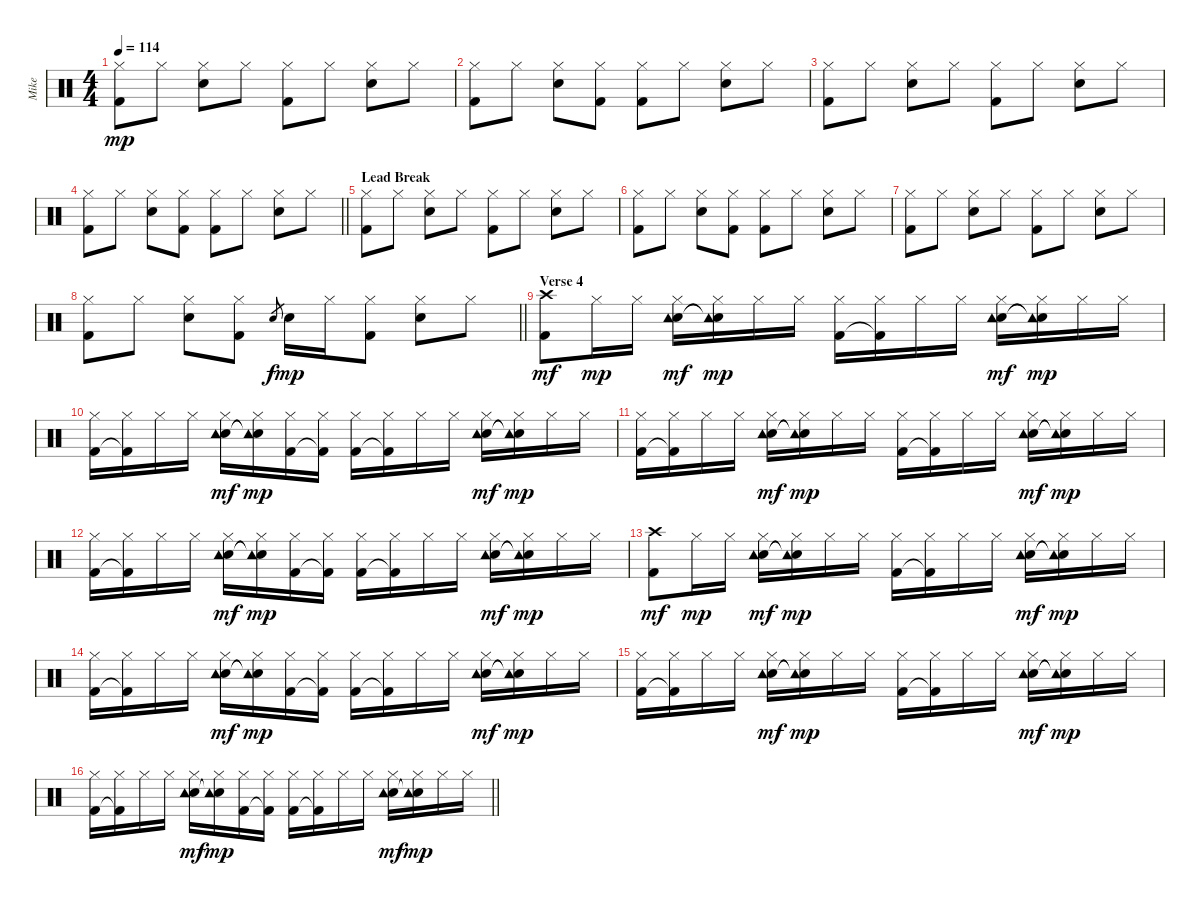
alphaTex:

\track ("Mike" "Mike") {instrument percussion}
\staff {score}
\articulation defaults
\ts (4 4)
\tempo 114
\clef neutral
\ks c
("Hi-Hat (closed)" "Kick (hit) 2").8{dy mp} "Hi-Hat (closed)".8 ("Hi-Hat (closed)" "Electric Snare (hit)").8 "Hi-Hat (closed)".8 ("Hi-Hat (closed)" "Kick (hit) 2").8 "Hi-Hat (closed)".8 ("Hi-Hat (closed)" "Electric Snare (hit)").8 "Hi-Hat (closed)".8 |
("Hi-Hat (closed)" "Kick (hit) 2").8 "Hi-Hat (closed)".8 ("Hi-Hat (closed)" "Electric Snare (hit)").8 ("Hi-Hat (closed)" "Kick (hit) 2").8 ("Hi-Hat (closed)" "Kick (hit) 2").8 "Hi-Hat (closed)".8 ("Hi-Hat (closed)" "Electric Snare (hit)").8 "Hi-Hat (closed)".8 |
("Hi-Hat (closed)" "Kick (hit) 2").8 "Hi-Hat (closed)".8 ("Hi-Hat (closed)" "Electric Snare (hit)").8 "Hi-Hat (closed)".8 ("Hi-Hat (closed)" "Kick (hit) 2").8 "Hi-Hat (closed)".8 ("Hi-Hat (closed)" "Electric Snare (hit)").8 "Hi-Hat (closed)".8 |
\barLineRight lightlight
("Hi-Hat (closed)" "Kick (hit) 2").8 "Hi-Hat (closed)".8 ("Hi-Hat (closed)" "Electric Snare (hit)").8 ("Hi-Hat (closed)" "Kick (hit) 2").8 ("Hi-Hat (closed)" "Kick (hit) 2").8 "Hi-Hat (closed)".8 ("Hi-Hat (closed)" "Electric Snare (hit)").8 "Hi-Hat (closed)".8 |
\section ("" "Lead Break")
("Hi-Hat (closed)" "Kick (hit) 2").8 "Hi-Hat (closed)".8 ("Hi-Hat (closed)" "Electric Snare (hit)").8 "Hi-Hat (closed)".8 ("Hi-Hat (closed)" "Kick (hit) 2").8 "Hi-Hat (closed)".8 ("Hi-Hat (closed)" "Electric Snare (hit)").8 "Hi-Hat (closed)".8 |
("Hi-Hat (closed)" "Kick (hit) 2").8 "Hi-Hat (closed)".8 ("Hi-Hat (closed)" "Electric Snare (hit)").8 ("Hi-Hat (closed)" "Kick (hit) 2").8 ("Hi-Hat (closed)" "Kick (hit) 2").8 "Hi-Hat (closed)".8 ("Hi-Hat (closed)" "Electric Snare (hit)").8 "Hi-Hat (closed)".8 |
("Hi-Hat (closed)" "Kick (hit) 2").8 "Hi-Hat (closed)".8 ("Hi-Hat (closed)" "Electric Snare (hit)").8 "Hi-Hat (closed)".8 ("Hi-Hat (closed)" "Kick (hit) 2").8 "Hi-Hat (closed)".8 ("Hi-Hat (closed)" "Electric Snare (hit)").8 "Hi-Hat (closed)".8 |
\barLineRight lightlight
("Hi-Hat (closed)" "Kick (hit) 2").8 "Hi-Hat (closed)".8 ("Hi-Hat (closed)" "Electric Snare (hit)").8 ("Hi-Hat (closed)" "Kick (hit) 2").8 "Electric Snare (hit)".8{gr dy f} "Electric Snare (hit)".16{dy mp} "Hi-Hat (closed)".16 ("Hi-Hat (closed)" "Kick (hit) 2").8 ("Hi-Hat (closed)" "Electric Snare (hit)").8 "Hi-Hat (closed)".8 |
\section ("" "Verse 4")
("Crash high (hit)" "Kick (hit) 2").8{dy mf} "Hi-Hat (closed)".16{dy mp} "Hi-Hat (closed)".16 ("Hi-Hat (closed)" "Electric Snare (hit)" "Tambourine (hit)").16{dy mf} ("Hi-Hat (closed)" "Electric Snare (hit)"{t} "Tambourine (hit)"{t}).16{dy mp} "Hi-Hat (closed)".16 "Hi-Hat (closed)".16 ("Hi-Hat (closed)" "Kick (hit) 2").16 ("Hi-Hat (closed)" "Kick (hit) 2"{t}).16 "Hi-Hat (closed)".16 "Hi-Hat (closed)".16 ("Hi-Hat (closed)" "Electric Snare (hit)" "Tambourine (hit)").16{dy mf} ("Hi-Hat (closed)" "Electric Snare (hit)"{t} "Tambourine (hit)"{t}).16{dy mp} "Hi-Hat (closed)".16 "Hi-Hat (closed)".16 |
("Hi-Hat (closed)" "Kick (hit) 2").16 ("Hi-Hat (closed)" "Kick (hit) 2"{t}).16 "Hi-Hat (closed)".16 "Hi-Hat (closed)".16 ("Hi-Hat (closed)" "Electric Snare (hit)" "Tambourine (hit)").16{dy mf} ("Hi-Hat (closed)" "Electric Snare (hit)"{t} "Tambourine (hit)"{t}).16{dy mp} ("Hi-Hat (closed)" "Kick (hit) 2").16 ("Hi-Hat (closed)" "Kick (hit) 2"{t}).16 ("Hi-Hat (closed)" "Kick (hit) 2").16 ("Hi-Hat (closed)" "Kick (hit) 2"{t}).16 "Hi-Hat (closed)".16 "Hi-Hat (closed)".16 ("Hi-Hat (closed)" "Electric Snare (hit)" "Tambourine (hit)").16{dy mf} ("Hi-Hat (closed)" "Electric Snare (hit)"{t} "Tambourine (hit)"{t}).16{dy mp} "Hi-Hat (closed)".16 "Hi-Hat (closed)".16 |
("Hi-Hat (closed)" "Kick (hit) 2").16 ("Hi-Hat (closed)" "Kick (hit) 2"{t}).16 "Hi-Hat (closed)".16 "Hi-Hat (closed)".16 ("Hi-Hat (closed)" "Electric Snare (hit)" "Tambourine (hit)").16{dy mf} ("Hi-Hat (closed)" "Electric Snare (hit)"{t} "Tambourine (hit)"{t}).16{dy mp} "Hi-Hat (closed)".16 "Hi-Hat (closed)".16 ("Hi-Hat (closed)" "Kick (hit) 2").16 ("Hi-Hat (closed)" "Kick (hit) 2"{t}).16 "Hi-Hat (closed)".16 "Hi-Hat (closed)".16 ("Hi-Hat (closed)" "Electric Snare (hit)" "Tambourine (hit)").16{dy mf} ("Hi-Hat (closed)" "Electric Snare (hit)"{t} "Tambourine (hit)"{t}).16{dy mp} "Hi-Hat (closed)".16 "Hi-Hat (closed)".16 |
("Hi-Hat (closed)" "Kick (hit) 2").16 ("Hi-Hat (closed)" "Kick (hit) 2"{t}).16 "Hi-Hat (closed)".16 "Hi-Hat (closed)".16 ("Hi-Hat (closed)" "Electric Snare (hit)" "Tambourine (hit)").16{dy mf} ("Hi-Hat (closed)" "Electric Snare (hit)"{t} "Tambourine (hit)"{t}).16{dy mp} ("Hi-Hat (closed)" "Kick (hit) 2").16 ("Hi-Hat (closed)" "Kick (hit) 2"{t}).16 ("Hi-Hat (closed)" "Kick (hit) 2").16 ("Hi-Hat (closed)" "Kick (hit) 2"{t}).16 "Hi-Hat (closed)".16 "Hi-Hat (closed)".16 ("Hi-Hat (closed)" "Electric Snare (hit)" "Tambourine (hit)").16{dy mf} ("Hi-Hat (closed)" "Electric Snare (hit)"{t} "Tambourine (hit)"{t}).16{dy mp} "Hi-Hat (closed)".16 "Hi-Hat (closed)".16 |
("Crash high (hit)" "Kick (hit) 2").8{dy mf} "Hi-Hat (closed)".16{dy mp} "Hi-Hat (closed)".16 ("Hi-Hat (closed)" "Electric Snare (hit)" "Tambourine (hit)").16{dy mf} ("Hi-Hat (closed)" "Electric Snare (hit)"{t} "Tambourine (hit)"{t}).16{dy mp} "Hi-Hat (closed)".16 "Hi-Hat (closed)".16 ("Hi-Hat (closed)" "Kick (hit) 2").16 ("Hi-Hat (closed)" "Kick (hit) 2"{t}).16 "Hi-Hat (closed)".16 "Hi-Hat (closed)".16 ("Hi-Hat (closed)" "Electric Snare (hit)" "Tambourine (hit)").16{dy mf} ("Hi-Hat (closed)" "Electric Snare (hit)"{t} "Tambourine (hit)"{t}).16{dy mp} "Hi-Hat (closed)".16 "Hi-Hat (closed)".16 |
("Hi-Hat (closed)" "Kick (hit) 2").16 ("Hi-Hat (closed)" "Kick (hit) 2"{t}).16 "Hi-Hat (closed)".16 "Hi-Hat (closed)".16 ("Hi-Hat (closed)" "Electric Snare (hit)" "Tambourine (hit)").16{dy mf} ("Hi-Hat (closed)" "Electric Snare (hit)"{t} "Tambourine (hit)"{t}).16{dy mp} ("Hi-Hat (closed)" "Kick (hit) 2").16 ("Hi-Hat (closed)" "Kick (hit) 2"{t}).16 ("Hi-Hat (closed)" "Kick (hit) 2").16 ("Hi-Hat (closed)" "Kick (hit) 2"{t}).16 "Hi-Hat (closed)".16 "Hi-Hat (closed)".16 ("Hi-Hat (closed)" "Electric Snare (hit)" "Tambourine (hit)").16{dy mf} ("Hi-Hat (closed)" "Electric Snare (hit)"{t} "Tambourine (hit)"{t}).16{dy mp} "Hi-Hat (closed)".16 "Hi-Hat (closed)".16 |
("Hi-Hat (closed)" "Kick (hit) 2").16 ("Hi-Hat (closed)" "Kick (hit) 2"{t}).16 "Hi-Hat (closed)".16 "Hi-Hat (closed)".16 ("Hi-Hat (closed)" "Electric Snare (hit)" "Tambourine (hit)").16{dy mf} ("Hi-Hat (closed)" "Electric Snare (hit)"{t} "Tambourine (hit)"{t}).16{dy mp} "Hi-Hat (closed)".16 "Hi-Hat (closed)".16 ("Hi-Hat (closed)" "Kick (hit) 2").16 ("Hi-Hat (closed)" "Kick (hit) 2"{t}).16 "Hi-Hat (closed)".16 "Hi-Hat (closed)".16 ("Hi-Hat (closed)" "Electric Snare (hit)" "Tambourine (hit)").16{dy mf} ("Hi-Hat (closed)" "Electric Snare (hit)"{t} "Tambourine (hit)"{t}).16{dy mp} "Hi-Hat (closed)".16 "Hi-Hat (closed)".16 |
\barLineRight lightlight
("Hi-Hat (closed)" "Kick (hit) 2").16 ("Hi-Hat (closed)" "Kick (hit) 2"{t}).16 "Hi-Hat (closed)".16 "Hi-Hat (closed)".16 ("Hi-Hat (closed)" "Electric Snare (hit)" "Tambourine (hit)").16{dy mf} ("Hi-Hat (closed)" "Electric Snare (hit)"{t} "Tambourine (hit)"{t}).16{dy mp} ("Hi-Hat (closed)" "Kick (hit) 2").16 ("Hi-Hat (closed)" "Kick (hit) 2"{t}).16 ("Hi-Hat (closed)" "Kick (hit) 2").16 ("Hi-Hat (closed)" "Kick (hit) 2"{t}).16 "Hi-Hat (closed)".16 "Hi-Hat (closed)".16 ("Hi-Hat (closed)" "Electric Snare (hit)" "Tambourine (hit)").16{dy mf} ("Hi-Hat (closed)" "Electric Snare (hit)"{t} "Tambourine (hit)"{t}).16{dy mp} "Hi-Hat (closed)".16 "Hi-Hat (closed)".16
